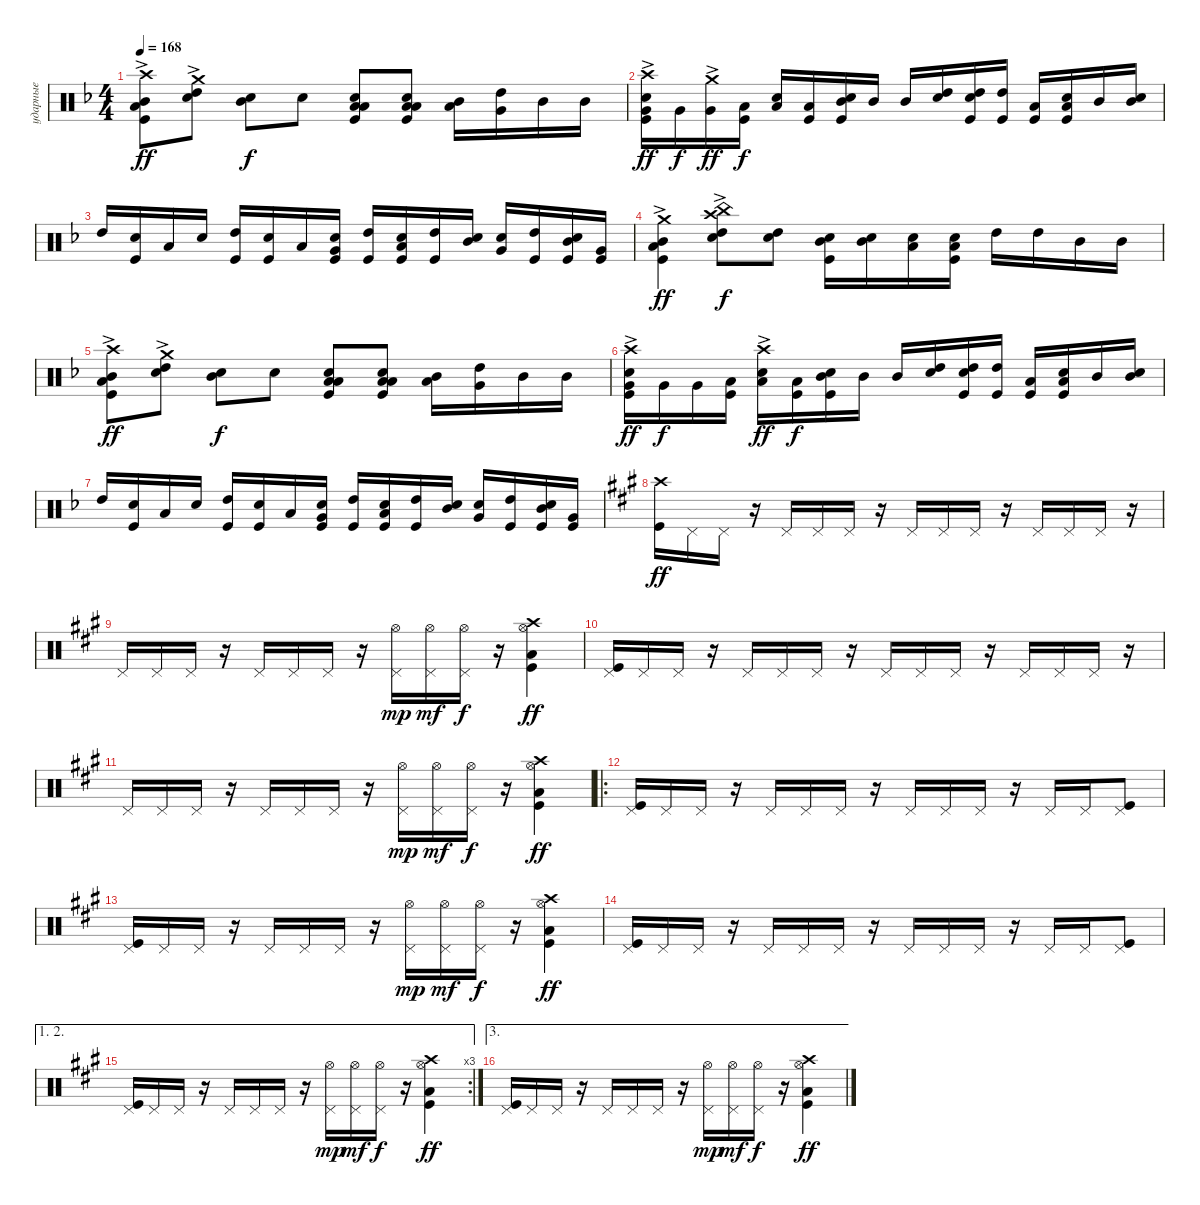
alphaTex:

\track ("ударные" "ударные") {instrument percussion}
\staff {score}
\articulation defaults
\ts (4 4)
\tempo 168
\clef neutral
\ks dminor
("Crash high (hit)"{ac} "Low Tom (hit)" "Mid Tom (hit)" "Kick (hit)").8{dy ff} ("Crash medium (hit)"{ac} "High Tom (hit)" "Snare (hit) 2").8 ("Mid Tom (hit)" "Snare (hit) 2").8{dy f} "Snare (hit) 2".8 ("Low Tom (hit)" "Snare (hit) 2" "Low Floor Tom (hit)" "Kick (hit)").8 ("Low Tom (hit)" "Snare (hit) 2" "Low Floor Tom (hit)" "Kick (hit)").8 ("Low Tom (hit)" "Mid Tom (hit)").16 ("Very Low Tom (hit)" "High Tom (hit)").16 "Mid Tom (hit)".16 "Mid Tom (hit)".16 |
("Very Low Tom (hit)" "Snare (hit) 2" "Kick (hit)" "Crash high (hit)"{ac}).16{dy ff} "Very Low Tom (hit)".16{dy f} ("Very Low Tom (hit)" "Crash medium (hit)"{ac}).16{dy ff} ("Low Tom (hit)" "Kick (hit)").16{dy f} ("Low Tom (hit)" "Snare (hit) 2").16 ("Low Tom (hit)" "Kick (hit)").16 ("Mid Tom (hit)" "Snare (hit) 2" "Kick (hit)").16 "Mid Tom (hit)".16 "Mid Tom (hit)".16 ("High Tom (hit)" "Snare (hit) 2").16 ("High Tom (hit)" "Snare (hit) 2" "Kick (hit)").16 ("High Tom (hit)" "Kick (hit)").16 ("Low Tom (hit)" "Kick (hit)").16 ("Low Tom (hit)" "Snare (hit) 2" "Kick (hit)").16 "Mid Tom (hit)".16 ("Mid Tom (hit)" "Snare (hit) 2").16 |
"High Tom (hit)".16 ("Snare (hit) 2" "Kick (hit)").16 "Low Tom (hit)".16 "Snare (hit) 2".16 ("High Tom (hit)" "Kick (hit)").16 ("Snare (hit) 2" "Kick (hit)").16 "Low Tom (hit)".16 ("Snare (hit) 2" "Very Low Tom (hit)" "Kick (hit)").16 ("High Tom (hit)" "Kick (hit)").16 ("Snare (hit) 2" "Low Tom (hit)" "Kick (hit)").16 ("High Tom (hit)" "Kick (hit)").16 ("Snare (hit) 2" "Mid Tom (hit)").16 ("Snare (hit) 2" "Very Low Tom (hit)").16 ("High Tom (hit)" "Kick (hit)").16 ("Snare (hit) 2" "Mid Tom (hit)" "Kick (hit)").16 ("Very Low Tom (hit)" "Kick (hit)").16 |
("Crash medium (hit)"{ac} "Low Tom (hit)" "Mid Tom (hit)" "Kick (hit)").4{dy ff} ("High Tom (hit)" "Snare (hit) 2" "Crash high (hit)"{ac} "China (hit)").8{dy f} ("High Tom (hit)" "Snare (hit) 2").8 ("Mid Tom (hit)" "Snare (hit) 2" "Kick (hit)").16 ("Mid Tom (hit)" "Snare (hit) 2").16 ("Low Tom (hit)" "Snare (hit) 2").16 ("Low Tom (hit)" "Snare (hit) 2" "Kick (hit)").16 "High Tom (hit)".16 "High Tom (hit)".16 "Mid Tom (hit)".16 "Mid Tom (hit)".16 |
("Crash high (hit)"{ac} "Low Tom (hit)" "Mid Tom (hit)" "Kick (hit)").8{dy ff} ("Crash medium (hit)"{ac} "High Tom (hit)" "Snare (hit) 2").8 ("Mid Tom (hit)" "Snare (hit) 2").8{dy f} "Snare (hit) 2".8 ("Low Tom (hit)" "Snare (hit) 2" "Low Floor Tom (hit)" "Kick (hit)").8 ("Low Tom (hit)" "Snare (hit) 2" "Low Floor Tom (hit)" "Kick (hit)").8 ("Low Tom (hit)" "Mid Tom (hit)").16 ("Very Low Tom (hit)" "High Tom (hit)").16 "Mid Tom (hit)".16 "Mid Tom (hit)".16 |
("Very Low Tom (hit)" "Snare (hit) 2" "Kick (hit)" "Crash high (hit)"{ac}).16{dy ff} "Very Low Tom (hit)".16{dy f} "Very Low Tom (hit)".16 ("Low Tom (hit)" "Kick (hit)").16 ("Low Tom (hit)" "Snare (hit) 2" "Crash high (hit)"{ac}).16{dy ff} ("Low Tom (hit)" "Kick (hit)").16{dy f} ("Mid Tom (hit)" "Snare (hit) 2" "Kick (hit)").16 "Mid Tom (hit)".16 "Mid Tom (hit)".16 ("High Tom (hit)" "Snare (hit) 2").16 ("High Tom (hit)" "Snare (hit) 2" "Kick (hit)").16 ("High Tom (hit)" "Kick (hit)").16 ("Low Tom (hit)" "Kick (hit)").16 ("Low Tom (hit)" "Snare (hit) 2" "Kick (hit)").16 "Mid Tom (hit)".16 ("Mid Tom (hit)" "Snare (hit) 2").16 |
"High Tom (hit)".16 ("Snare (hit) 2" "Kick (hit)").16 "Low Tom (hit)".16 "Snare (hit) 2".16 ("High Tom (hit)" "Kick (hit)").16 ("Snare (hit) 2" "Kick (hit)").16 "Low Tom (hit)".16 ("Snare (hit) 2" "Very Low Tom (hit)" "Kick (hit)").16 ("High Tom (hit)" "Kick (hit)").16 ("Snare (hit) 2" "Low Tom (hit)" "Kick (hit)").16 ("High Tom (hit)" "Kick (hit)").16 ("Snare (hit) 2" "Mid Tom (hit)").16 ("Snare (hit) 2" "Very Low Tom (hit)").16 ("High Tom (hit)" "Kick (hit)").16 ("Snare (hit) 2" "Mid Tom (hit)" "Kick (hit)").16 ("Very Low Tom (hit)" "Kick (hit)").16 |
\ks f#minor
("Kick (hit)" "Crash high (hit)").16{dy ff} "Pedal Hi-Hat (hit)".16 "Pedal Hi-Hat (hit)".16 r.16 "Pedal Hi-Hat (hit)".16 "Pedal Hi-Hat (hit)".16 "Pedal Hi-Hat (hit)".16 r.16 "Pedal Hi-Hat (hit)".16 "Pedal Hi-Hat (hit)".16 "Pedal Hi-Hat (hit)".16 r.16 "Pedal Hi-Hat (hit)".16 "Pedal Hi-Hat (hit)".16 "Pedal Hi-Hat (hit)".16 r.16 |
"Pedal Hi-Hat (hit)".16 "Pedal Hi-Hat (hit)".16 "Pedal Hi-Hat (hit)".16 r.16 "Pedal Hi-Hat (hit)".16 "Pedal Hi-Hat (hit)".16 "Pedal Hi-Hat (hit)".16 r.16 ("Pedal Hi-Hat (hit)" "Hi-Hat (open)").16{dy mp} ("Pedal Hi-Hat (hit)" "Hi-Hat (open)").16{dy mf} ("Pedal Hi-Hat (hit)" "Hi-Hat (open)").16{dy f} r.16 ("Hi-Hat (open)" "Kick (hit)" "Crash high (hit)" "Low Floor Tom (hit)").4{dy ff} |
("Pedal Hi-Hat (hit)" "Kick (hit)").16 "Pedal Hi-Hat (hit)".16 "Pedal Hi-Hat (hit)".16 r.16 "Pedal Hi-Hat (hit)".16 "Pedal Hi-Hat (hit)".16 "Pedal Hi-Hat (hit)".16 r.16 "Pedal Hi-Hat (hit)".16 "Pedal Hi-Hat (hit)".16 "Pedal Hi-Hat (hit)".16 r.16 "Pedal Hi-Hat (hit)".16 "Pedal Hi-Hat (hit)".16 "Pedal Hi-Hat (hit)".16 r.16 |
"Pedal Hi-Hat (hit)".16 "Pedal Hi-Hat (hit)".16 "Pedal Hi-Hat (hit)".16 r.16 "Pedal Hi-Hat (hit)".16 "Pedal Hi-Hat (hit)".16 "Pedal Hi-Hat (hit)".16 r.16 ("Pedal Hi-Hat (hit)" "Hi-Hat (open)").16{dy mp} ("Pedal Hi-Hat (hit)" "Hi-Hat (open)").16{dy mf} ("Pedal Hi-Hat (hit)" "Hi-Hat (open)").16{dy f} r.16 ("Hi-Hat (open)" "Kick (hit)" "Crash high (hit)" "Low Floor Tom (hit)").4{dy ff} |
\ro
("Pedal Hi-Hat (hit)" "Kick (hit)").16 "Pedal Hi-Hat (hit)".16 "Pedal Hi-Hat (hit)".16 r.16 "Pedal Hi-Hat (hit)".16 "Pedal Hi-Hat (hit)".16 "Pedal Hi-Hat (hit)".16 r.16 "Pedal Hi-Hat (hit)".16 "Pedal Hi-Hat (hit)".16 "Pedal Hi-Hat (hit)".16 r.16 "Pedal Hi-Hat (hit)".16 "Pedal Hi-Hat (hit)".16 ("Pedal Hi-Hat (hit)" "Kick (hit)").8 |
("Pedal Hi-Hat (hit)" "Kick (hit)").16 "Pedal Hi-Hat (hit)".16 "Pedal Hi-Hat (hit)".16 r.16 "Pedal Hi-Hat (hit)".16 "Pedal Hi-Hat (hit)".16 "Pedal Hi-Hat (hit)".16 r.16 ("Pedal Hi-Hat (hit)" "Hi-Hat (open)").16{dy mp} ("Pedal Hi-Hat (hit)" "Hi-Hat (open)").16{dy mf} ("Pedal Hi-Hat (hit)" "Hi-Hat (open)").16{dy f} r.16 ("Hi-Hat (open)" "Kick (hit)" "Crash high (hit)" "Low Floor Tom (hit)").4{dy ff} |
("Pedal Hi-Hat (hit)" "Kick (hit)").16 "Pedal Hi-Hat (hit)".16 "Pedal Hi-Hat (hit)".16 r.16 "Pedal Hi-Hat (hit)".16 "Pedal Hi-Hat (hit)".16 "Pedal Hi-Hat (hit)".16 r.16 "Pedal Hi-Hat (hit)".16 "Pedal Hi-Hat (hit)".16 "Pedal Hi-Hat (hit)".16 r.16 "Pedal Hi-Hat (hit)".16 "Pedal Hi-Hat (hit)".16 ("Pedal Hi-Hat (hit)" "Kick (hit)").8 |
\ae (1 2)
\rc 3
("Pedal Hi-Hat (hit)" "Kick (hit)").16 "Pedal Hi-Hat (hit)".16 "Pedal Hi-Hat (hit)".16 r.16 "Pedal Hi-Hat (hit)".16 "Pedal Hi-Hat (hit)".16 "Pedal Hi-Hat (hit)".16 r.16 ("Pedal Hi-Hat (hit)" "Hi-Hat (open)").16{dy mp} ("Pedal Hi-Hat (hit)" "Hi-Hat (open)").16{dy mf} ("Pedal Hi-Hat (hit)" "Hi-Hat (open)").16{dy f} r.16 ("Hi-Hat (open)" "Kick (hit)" "Crash high (hit)" "Low Floor Tom (hit)").4{dy ff} |
\ae 3
("Pedal Hi-Hat (hit)" "Kick (hit)").16 "Pedal Hi-Hat (hit)".16 "Pedal Hi-Hat (hit)".16 r.16 "Pedal Hi-Hat (hit)".16 "Pedal Hi-Hat (hit)".16 "Pedal Hi-Hat (hit)".16 r.16 ("Pedal Hi-Hat (hit)" "Hi-Hat (open)").16{dy mp} ("Pedal Hi-Hat (hit)" "Hi-Hat (open)").16{dy mf} ("Pedal Hi-Hat (hit)" "Hi-Hat (open)").16{dy f} r.16 ("Hi-Hat (open)" "Kick (hit)" "Crash high (hit)" "Low Floor Tom (hit)").4{dy ff}
